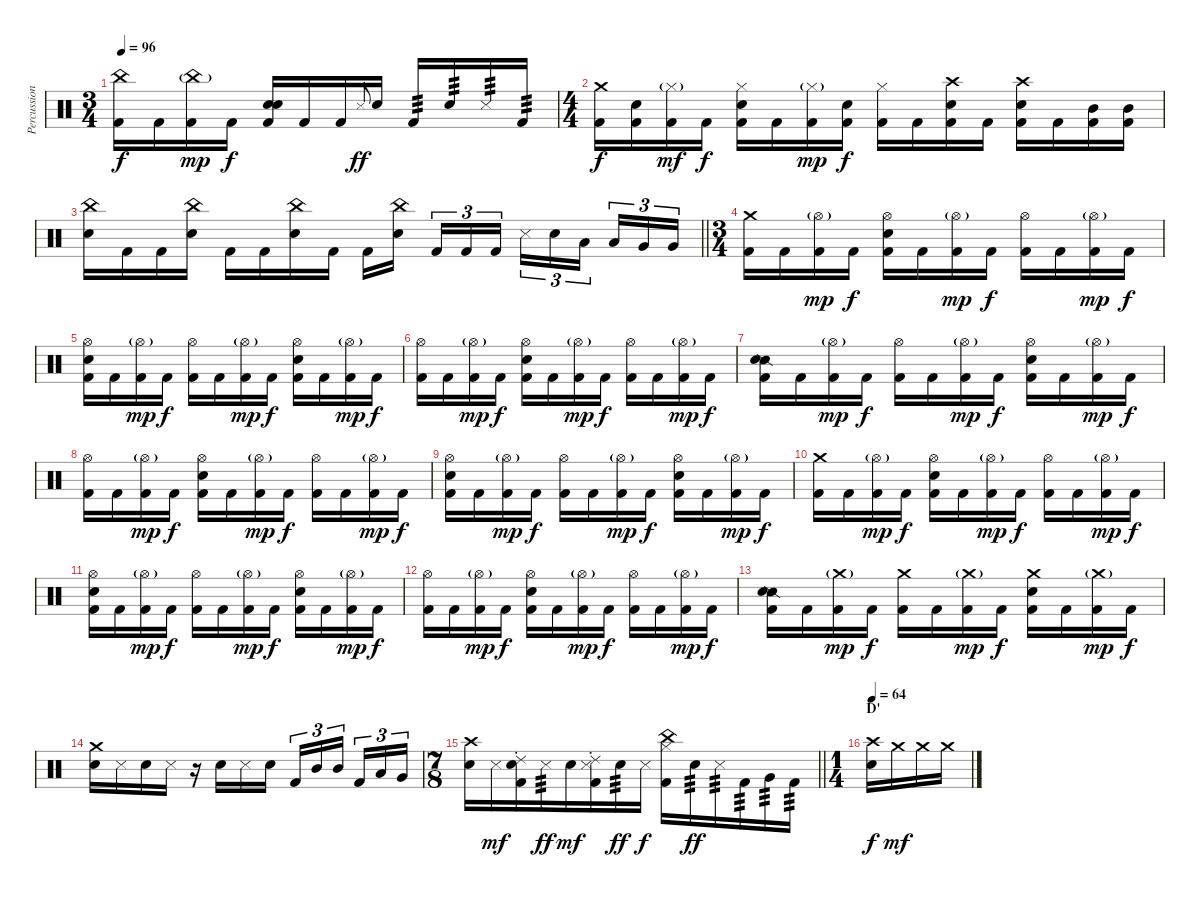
\track ("Percussion" "Percussion") {instrument percussion}
\staff {score}
\articulation defaults
\ts (3 4)
\tempo 96
\clef neutral
\ks c
("China (hit)" "Kick (hit) 2").16{dy f} "Kick (hit) 2".16 ("China (hit)"{g} "Kick (hit) 2").16{dy mp} "Kick (hit) 2".16{dy f} ("Snare (hit)" "Snare (hit) 2" "Kick (hit) 2").16 "Kick (hit) 2".16 "Kick (hit) 2".16 "Metronome (hit)".8{gr onbeat dy ff} "Snare (hit) 2".16 "Kick (hit) 2".16{tp 3} "Snare (hit) 2".16{tp 3} "Metronome (hit)".16{tp 3} "Kick (hit) 2".16{tp 3} |
\ts (4 4)
("Crash medium (hit)" "Kick (hit) 2").16{dy f} ("Snare (hit) 2" "Kick (hit) 2").16 ("Hi-Hat (closed)"{g} "Kick (hit) 2").16{dy mf} "Kick (hit) 2".16{dy f} ("Hi-Hat (closed)" "Snare (hit) 2" "Kick (hit) 2").16 "Kick (hit) 2".16 ("Hi-Hat (closed)"{g} "Kick (hit) 2").16{dy mp} ("Snare (hit) 2" "Kick (hit) 2").16{dy f} ("Hi-Hat (closed)" "Kick (hit) 2").16 "Kick (hit) 2".16 ("Crash high (hit)" "Snare (hit) 2" "Kick (hit) 2").16 "Kick (hit) 2".16 ("Crash high (hit)" "Snare (hit) 2" "Kick (hit) 2").16 "Kick (hit) 2".16 ("Mid Tom (hit)" "Kick (hit) 2").16 ("Mid Tom (hit)" "Kick (hit) 2").16 |
\barLineRight lightlight
("China (hit)" "Snare (hit) 2").16 "Kick (hit) 2".16 "Kick (hit) 2".16 ("China (hit)" "Snare (hit) 2").16 "Kick (hit) 2".16 "Kick (hit) 2".16 ("China (hit)" "Snare (hit) 2").16 "Kick (hit) 2".16 "Kick (hit) 2".16 ("China (hit)" "Snare (hit) 2").16{beam splitsecondary} "Kick (hit) 2".16{tu (3 2)} "Kick (hit) 2".16{tu (3 2)} "Kick (hit) 2".16{tu (3 2)} "Metronome (hit)".16{tu (3 2)} "Snare (hit) 2".16{tu (3 2)} "Low Tom (hit)".16{tu (3 2) beam splitsecondary} "Low Tom (hit)".16{tu (3 2)} "Very Low Tom (hit)".16{tu (3 2)} "Very Low Tom (hit)".16{tu (3 2)} |
\ts (3 4)
("Crash medium (hit)" "Kick (hit) 2").16 "Kick (hit) 2".16 ("Hi-Hat (open)"{g} "Kick (hit) 2").16{dy mp} "Kick (hit) 2".16{dy f} ("Hi-Hat (open)" "Snare (hit) 2" "Kick (hit) 2").16 "Kick (hit) 2".16 ("Hi-Hat (open)"{g} "Kick (hit) 2").16{dy mp} "Kick (hit) 2".16{dy f} ("Hi-Hat (open)" "Kick (hit) 2").16 "Kick (hit) 2".16 ("Hi-Hat (open)"{g} "Kick (hit) 2").16{dy mp} "Kick (hit) 2".16{dy f} |
("Hi-Hat (open)" "Snare (hit) 2" "Kick (hit) 2").16 "Kick (hit) 2".16 ("Hi-Hat (open)"{g} "Kick (hit) 2").16{dy mp} "Kick (hit) 2".16{dy f} ("Hi-Hat (open)" "Kick (hit) 2").16 "Kick (hit) 2".16 ("Hi-Hat (open)"{g} "Kick (hit) 2").16{dy mp} "Kick (hit) 2".16{dy f} ("Hi-Hat (open)" "Snare (hit) 2" "Kick (hit) 2").16 "Kick (hit) 2".16 ("Hi-Hat (open)"{g} "Kick (hit) 2").16{dy mp} "Kick (hit) 2".16{dy f} |
("Hi-Hat (open)" "Kick (hit) 2").16 "Kick (hit) 2".16 ("Hi-Hat (open)"{g} "Kick (hit) 2").16{dy mp} "Kick (hit) 2".16{dy f} ("Hi-Hat (open)" "Snare (hit) 2" "Kick (hit) 2").16 "Kick (hit) 2".16 ("Hi-Hat (open)"{g} "Kick (hit) 2").16{dy mp} "Kick (hit) 2".16{dy f} ("Hi-Hat (open)" "Kick (hit) 2").16 "Kick (hit) 2".16 ("Hi-Hat (open)"{g} "Kick (hit) 2").16{dy mp} "Kick (hit) 2".16{dy f} |
("Snare (side stick) 2" "Snare (hit) 2" "Kick (hit) 2").16 "Kick (hit) 2".16 ("Hi-Hat (open)"{g} "Kick (hit) 2").16{dy mp} "Kick (hit) 2".16{dy f} ("Hi-Hat (open)" "Kick (hit) 2").16 "Kick (hit) 2".16 ("Hi-Hat (open)"{g} "Kick (hit) 2").16{dy mp} "Kick (hit) 2".16{dy f} ("Hi-Hat (open)" "Snare (hit) 2" "Kick (hit) 2").16 "Kick (hit) 2".16 ("Hi-Hat (open)"{g} "Kick (hit) 2").16{dy mp} "Kick (hit) 2".16{dy f} |
("Hi-Hat (open)" "Kick (hit) 2").16 "Kick (hit) 2".16 ("Hi-Hat (open)"{g} "Kick (hit) 2").16{dy mp} "Kick (hit) 2".16{dy f} ("Hi-Hat (open)" "Snare (hit) 2" "Kick (hit) 2").16 "Kick (hit) 2".16 ("Hi-Hat (open)"{g} "Kick (hit) 2").16{dy mp} "Kick (hit) 2".16{dy f} ("Hi-Hat (open)" "Kick (hit) 2").16 "Kick (hit) 2".16 ("Hi-Hat (open)"{g} "Kick (hit) 2").16{dy mp} "Kick (hit) 2".16{dy f} |
("Hi-Hat (open)" "Snare (hit) 2" "Kick (hit) 2").16 "Kick (hit) 2".16 ("Hi-Hat (open)"{g} "Kick (hit) 2").16{dy mp} "Kick (hit) 2".16{dy f} ("Hi-Hat (open)" "Kick (hit) 2").16 "Kick (hit) 2".16 ("Hi-Hat (open)"{g} "Kick (hit) 2").16{dy mp} "Kick (hit) 2".16{dy f} ("Hi-Hat (open)" "Snare (hit) 2" "Kick (hit) 2").16 "Kick (hit) 2".16 ("Hi-Hat (open)"{g} "Kick (hit) 2").16{dy mp} "Kick (hit) 2".16{dy f} |
("Crash medium (hit)" "Kick (hit) 2").16 "Kick (hit) 2".16 ("Hi-Hat (open)"{g} "Kick (hit) 2").16{dy mp} "Kick (hit) 2".16{dy f} ("Hi-Hat (open)" "Snare (hit) 2" "Kick (hit) 2").16 "Kick (hit) 2".16 ("Hi-Hat (open)"{g} "Kick (hit) 2").16{dy mp} "Kick (hit) 2".16{dy f} ("Hi-Hat (open)" "Kick (hit) 2").16 "Kick (hit) 2".16 ("Hi-Hat (open)"{g} "Kick (hit) 2").16{dy mp} "Kick (hit) 2".16{dy f} |
("Hi-Hat (open)" "Snare (hit) 2" "Kick (hit) 2").16 "Kick (hit) 2".16 ("Hi-Hat (open)"{g} "Kick (hit) 2").16{dy mp} "Kick (hit) 2".16{dy f} ("Hi-Hat (open)" "Kick (hit) 2").16 "Kick (hit) 2".16 ("Hi-Hat (open)"{g} "Kick (hit) 2").16{dy mp} "Kick (hit) 2".16{dy f} ("Hi-Hat (open)" "Snare (hit) 2" "Kick (hit) 2").16 "Kick (hit) 2".16 ("Hi-Hat (open)"{g} "Kick (hit) 2").16{dy mp} "Kick (hit) 2".16{dy f} |
("Hi-Hat (open)" "Kick (hit) 2").16 "Kick (hit) 2".16 ("Hi-Hat (open)"{g} "Kick (hit) 2").16{dy mp} "Kick (hit) 2".16{dy f} ("Hi-Hat (open)" "Snare (hit) 2" "Kick (hit) 2").16 "Kick (hit) 2".16 ("Hi-Hat (open)"{g} "Kick (hit) 2").16{dy mp} "Kick (hit) 2".16{dy f} ("Hi-Hat (open)" "Kick (hit) 2").16 "Kick (hit) 2".16 ("Hi-Hat (open)"{g} "Kick (hit) 2").16{dy mp} "Kick (hit) 2".16{dy f} |
("Snare (side stick) 2" "Snare (hit) 2" "Kick (hit) 2").16 "Kick (hit) 2".16 ("Crash medium (hit)"{g} "Kick (hit) 2").16{dy mp} "Kick (hit) 2".16{dy f} ("Crash medium (hit)" "Kick (hit) 2").16 "Kick (hit) 2".16 ("Crash medium (hit)"{g} "Kick (hit) 2").16{dy mp} "Kick (hit) 2".16{dy f} ("Crash medium (hit)" "Snare (hit) 2" "Kick (hit) 2").16 "Kick (hit) 2".16 ("Crash medium (hit)"{g} "Kick (hit) 2").16{dy mp} "Kick (hit) 2".16{dy f} |
("Crash medium (hit)" "Snare (hit) 2").16 "Metronome (hit)".16 "Snare (hit) 2".16 "Metronome (hit)".16 r.16 "Snare (hit) 2".16 "Metronome (hit)".16 "Snare (hit) 2".16 "Kick (hit) 2".16{tu (3 2)} "Mid Tom (hit)".16{tu (3 2)} "Mid Tom (hit)".16{tu (3 2) beam splitsecondary} "Kick (hit) 2".16{tu (3 2)} "Low Tom (hit)".16{tu (3 2)} "Very Low Tom (hit)".16{tu (3 2)} |
\ts (7 8)
\barLineRight lightlight
("Crash high (hit)" "Snare (hit) 2").16 "Metronome (hit)".16{dy mf} ("Ride (choke) 2" "Snare (hit) 2" "Kick (hit) 2").16 "Metronome (hit)".16{tp 3 dy ff} "Snare (hit) 2".16{dy mf} ("Ride (choke) 2" "Metronome (hit)" "Kick (hit) 2").16 "Snare (hit) 2".16{tp 3 dy ff} "Metronome (hit)".16{dy f} ("Hi-Hat (closed)" "China (hit)" "Kick (hit) 2").16 "Snare (hit) 2".16{tp 3 dy ff} "Metronome (hit)".16{tp 3} "Kick (hit) 2".16{tp 3} "Very Low Tom (hit)".16{tp 3} "Kick (hit) 2".16{tp 3} |
\ts (1 4)
\section ("" "D'")
\tempo 64
("Crash high (hit)" "Snare (hit) 2").16{dy f} "Crash medium (hit)".16{dy mf} "Crash medium (hit)".16 "Crash medium (hit)".16
